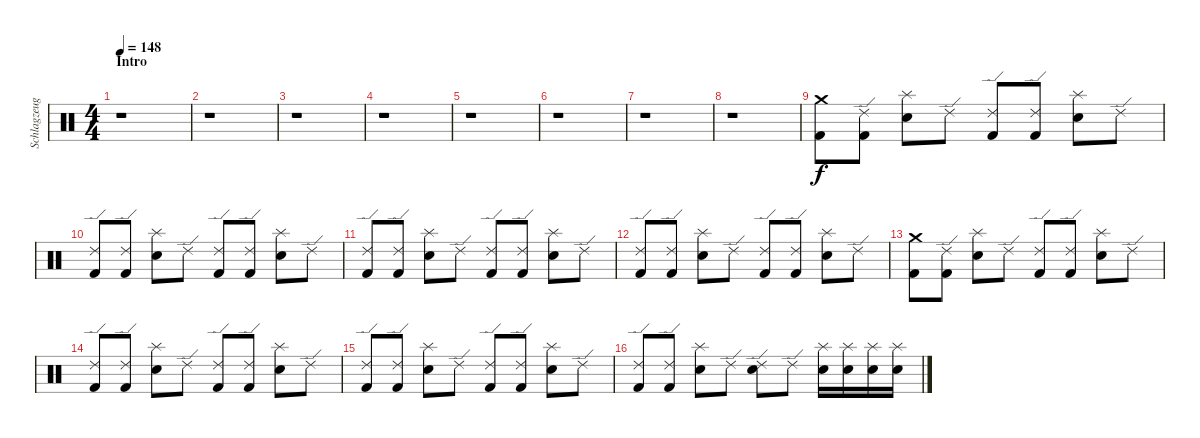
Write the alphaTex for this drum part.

\track ("Schlagzeug" "Schlagzeug") {instrument percussion}
\staff {score}
\articulation defaults
\ts (4 4)
\section ("" "Intro")
\tempo 148
\clef neutral
\ks c
r.1{dy f} |
r.1 |
r.1 |
r.1 |
r.1 |
r.1 |
r.1 |
r.1 |
("Crash medium (hit)" "Kick (hit) 2").8 ("Kick (hit) 2" "Ride (edge) 2").8 ("Splash (hit)" "Snare (hit) 2").8 "Ride (edge) 2".8 ("Ride (edge) 2" "Kick (hit) 2").8 ("Ride (edge) 2" "Kick (hit) 2").8 ("Splash (hit)" "Snare (hit) 2").8 "Ride (edge) 2".8 |
("Ride (edge) 2" "Kick (hit) 2").8 ("Kick (hit) 2" "Ride (edge) 2").8 ("Splash (hit)" "Snare (hit) 2").8 "Ride (edge) 2".8 ("Ride (edge) 2" "Kick (hit) 2").8 ("Ride (edge) 2" "Kick (hit) 2").8 ("Splash (hit)" "Snare (hit) 2").8 "Ride (edge) 2".8 |
("Ride (edge) 2" "Kick (hit) 2").8 ("Kick (hit) 2" "Ride (edge) 2").8 ("Splash (hit)" "Snare (hit) 2").8 "Ride (edge) 2".8 ("Ride (edge) 2" "Kick (hit) 2").8 ("Ride (edge) 2" "Kick (hit) 2").8 ("Splash (hit)" "Snare (hit) 2").8 "Ride (edge) 2".8 |
("Ride (edge) 2" "Kick (hit) 2").8 ("Kick (hit) 2" "Ride (edge) 2").8 ("Splash (hit)" "Snare (hit) 2").8 "Ride (edge) 2".8 ("Ride (edge) 2" "Kick (hit) 2").8 ("Ride (edge) 2" "Kick (hit) 2").8 ("Splash (hit)" "Snare (hit) 2").8 "Ride (edge) 2".8 |
("Crash medium (hit)" "Kick (hit) 2").8 ("Kick (hit) 2" "Ride (edge) 2").8 ("Splash (hit)" "Snare (hit) 2").8 "Ride (edge) 2".8 ("Ride (edge) 2" "Kick (hit) 2").8 ("Ride (edge) 2" "Kick (hit) 2").8 ("Splash (hit)" "Snare (hit) 2").8 "Ride (edge) 2".8 |
("Ride (edge) 2" "Kick (hit) 2").8 ("Kick (hit) 2" "Ride (edge) 2").8 ("Splash (hit)" "Snare (hit) 2").8 "Ride (edge) 2".8 ("Ride (edge) 2" "Kick (hit) 2").8 ("Ride (edge) 2" "Kick (hit) 2").8 ("Splash (hit)" "Snare (hit) 2").8 "Ride (edge) 2".8 |
("Ride (edge) 2" "Kick (hit) 2").8 ("Kick (hit) 2" "Ride (edge) 2").8 ("Splash (hit)" "Snare (hit) 2").8 "Ride (edge) 2".8 ("Ride (edge) 2" "Kick (hit) 2").8 ("Ride (edge) 2" "Kick (hit) 2").8 ("Splash (hit)" "Snare (hit) 2").8 "Ride (edge) 2".8 |
("Ride (edge) 2" "Kick (hit) 2").8 ("Kick (hit) 2" "Ride (edge) 2").8 ("Splash (hit)" "Snare (hit) 2").8 "Ride (edge) 2".8 ("Snare (hit) 2" "Ride (edge) 2").8 "Ride (edge) 2".8 ("Splash (hit)" "Snare (hit) 2").16 ("Splash (hit)" "Snare (hit) 2").16 ("Splash (hit)" "Snare (hit) 2").16 ("Splash (hit)" "Snare (hit) 2").16
